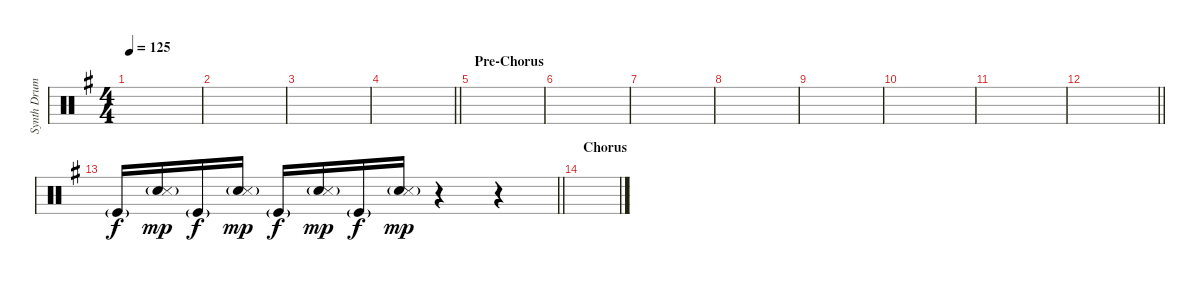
\track ("Synth Drums" "Synth Drum") {instrument percussion}
\staff {score}
\articulation defaults
\ts (4 4)
\tempo 125
\clef neutral
\ks eminor
|
|
|
\barLineRight lightlight
|
\section ("" "Pre-Chorus")
|
|
|
|
|
|
|
\barLineRight lightlight
|
\barLineRight lightlight "Kick (hit)"{g}.16{dy f}
("Snare (hit) 2"{g} "Snare (side stick) 3").16{dy mp} "Kick (hit)"{g}.16{dy f} ("Snare (hit) 2"{g} "Snare (side stick) 3").16{dy mp} "Kick (hit)"{g}.16{dy f} ("Snare (hit) 2"{g} "Snare (side stick) 3").16{dy mp} "Kick (hit)"{g}.16{dy f} ("Snare (hit) 2"{g} "Snare (side stick) 3").16{dy mp} r.4 r.4 |
\section ("" "Chorus")
